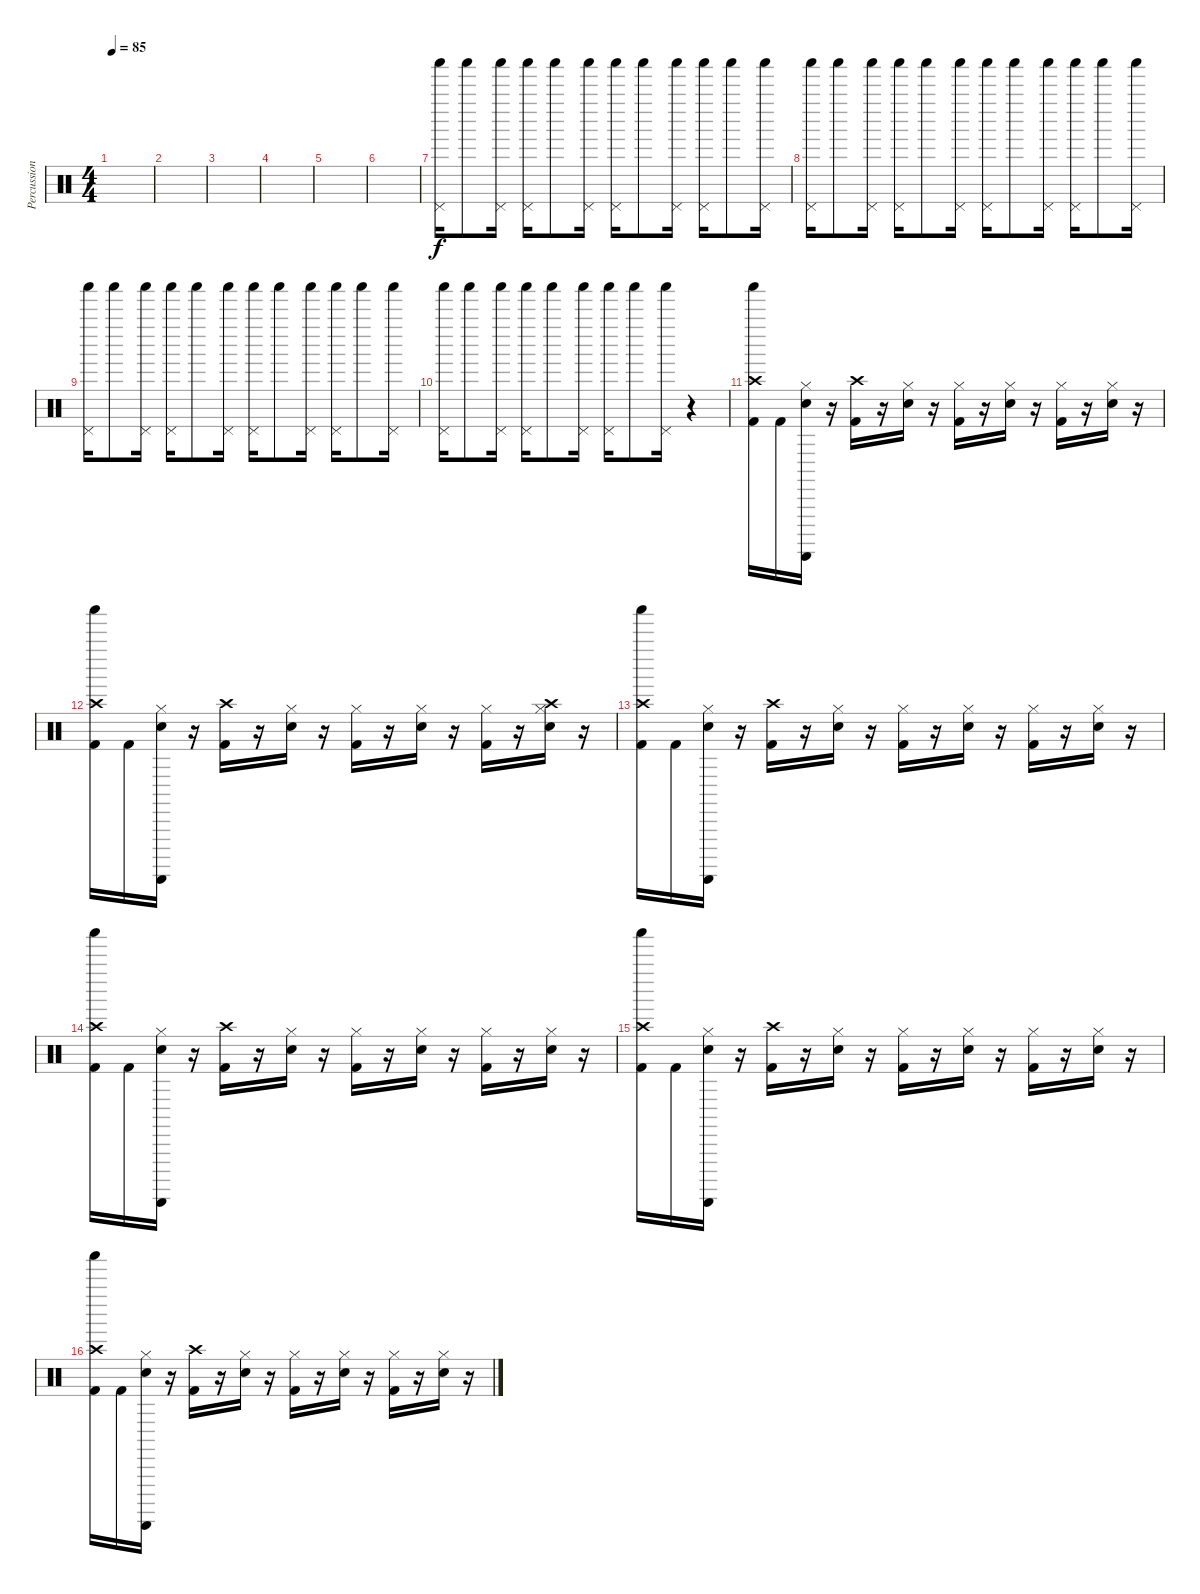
\track ("Percussioni" "Percussion") {instrument percussion}
\staff {score}
\articulation defaults
\ts (4 4)
\tempo 85
\clef neutral
\ks c
|
|
|
|
|
|
("Shaker (hit)" "Pedal Hi-Hat (hit)").16 "Shaker (hit)".8 ("Shaker (hit)" "Pedal Hi-Hat (hit)").16 ("Shaker (hit)" "Pedal Hi-Hat (hit)").16 "Shaker (hit)".8 ("Shaker (hit)" "Pedal Hi-Hat (hit)").16 ("Shaker (hit)" "Pedal Hi-Hat (hit)").16 "Shaker (hit)".8 ("Shaker (hit)" "Pedal Hi-Hat (hit)").16 ("Shaker (hit)" "Pedal Hi-Hat (hit)").16 "Shaker (hit)".8 ("Shaker (hit)" "Pedal Hi-Hat (hit)").16 |
("Shaker (hit)" "Pedal Hi-Hat (hit)").16 "Shaker (hit)".8 ("Shaker (hit)" "Pedal Hi-Hat (hit)").16 ("Shaker (hit)" "Pedal Hi-Hat (hit)").16 "Shaker (hit)".8 ("Shaker (hit)" "Pedal Hi-Hat (hit)").16 ("Shaker (hit)" "Pedal Hi-Hat (hit)").16 "Shaker (hit)".8 ("Shaker (hit)" "Pedal Hi-Hat (hit)").16 ("Shaker (hit)" "Pedal Hi-Hat (hit)").16 "Shaker (hit)".8 ("Shaker (hit)" "Pedal Hi-Hat (hit)").16 |
("Shaker (hit)" "Pedal Hi-Hat (hit)").16 "Shaker (hit)".8 ("Shaker (hit)" "Pedal Hi-Hat (hit)").16 ("Shaker (hit)" "Pedal Hi-Hat (hit)").16 "Shaker (hit)".8 ("Shaker (hit)" "Pedal Hi-Hat (hit)").16 ("Shaker (hit)" "Pedal Hi-Hat (hit)").16 "Shaker (hit)".8 ("Shaker (hit)" "Pedal Hi-Hat (hit)").16 ("Shaker (hit)" "Pedal Hi-Hat (hit)").16 "Shaker (hit)".8 ("Shaker (hit)" "Pedal Hi-Hat (hit)").16 |
("Shaker (hit)" "Pedal Hi-Hat (hit)").16 "Shaker (hit)".8 ("Shaker (hit)" "Pedal Hi-Hat (hit)").16 ("Shaker (hit)" "Pedal Hi-Hat (hit)").16 "Shaker (hit)".8 ("Shaker (hit)" "Pedal Hi-Hat (hit)").16 ("Shaker (hit)" "Pedal Hi-Hat (hit)").16 "Shaker (hit)".8 ("Shaker (hit)" "Pedal Hi-Hat (hit)").16 r.4 |
("Shaker (hit)" "Crash high (hit)" "Kick (hit) 2").16 "Kick (hit) 2".16 ("Hi-Hat (closed)" "Guiro (scrap-return)" "Electric Snare (hit)").16 r.16 ("Crash high (hit)" "Kick (hit) 2").16 r.16 ("Hi-Hat (closed)" "Electric Snare (hit)").16 r.16 ("Hi-Hat (closed)" "Kick (hit) 2").16 r.16 ("Hi-Hat (closed)" "Electric Snare (hit)").16 r.16 ("Hi-Hat (closed)" "Kick (hit) 2").16 r.16 ("Hi-Hat (closed)" "Electric Snare (hit)").16 r.16 |
("Shaker (hit)" "Crash high (hit)" "Kick (hit) 2").16 "Kick (hit) 2".16 ("Hi-Hat (closed)" "Guiro (scrap-return)" "Electric Snare (hit)").16 r.16 ("Crash high (hit)" "Kick (hit) 2").16 r.16 ("Hi-Hat (closed)" "Electric Snare (hit)").16 r.16 ("Hi-Hat (closed)" "Kick (hit) 2").16 r.16 ("Hi-Hat (closed)" "Electric Snare (hit)").16 r.16 ("Hi-Hat (closed)" "Kick (hit) 2").16 r.16 ("Hi-Hat (closed)" "Electric Snare (hit)" "Crash high (hit)").16 r.16 |
("Shaker (hit)" "Crash high (hit)" "Kick (hit) 2").16 "Kick (hit) 2".16 ("Hi-Hat (closed)" "Guiro (scrap-return)" "Electric Snare (hit)").16 r.16 ("Crash high (hit)" "Kick (hit) 2").16 r.16 ("Hi-Hat (closed)" "Electric Snare (hit)").16 r.16 ("Hi-Hat (closed)" "Kick (hit) 2").16 r.16 ("Hi-Hat (closed)" "Electric Snare (hit)").16 r.16 ("Hi-Hat (closed)" "Kick (hit) 2").16 r.16 ("Hi-Hat (closed)" "Electric Snare (hit)").16 r.16 |
("Shaker (hit)" "Crash high (hit)" "Kick (hit) 2").16 "Kick (hit) 2".16 ("Hi-Hat (closed)" "Guiro (scrap-return)" "Electric Snare (hit)").16 r.16 ("Crash high (hit)" "Kick (hit) 2").16 r.16 ("Hi-Hat (closed)" "Electric Snare (hit)").16 r.16 ("Hi-Hat (closed)" "Kick (hit) 2").16 r.16 ("Hi-Hat (closed)" "Electric Snare (hit)").16 r.16 ("Hi-Hat (closed)" "Kick (hit) 2").16 r.16 ("Hi-Hat (closed)" "Electric Snare (hit)").16 r.16 |
("Shaker (hit)" "Crash high (hit)" "Kick (hit) 2").16 "Kick (hit) 2".16 ("Hi-Hat (closed)" "Guiro (scrap-return)" "Electric Snare (hit)").16 r.16 ("Crash high (hit)" "Kick (hit) 2").16 r.16 ("Hi-Hat (closed)" "Electric Snare (hit)").16 r.16 ("Hi-Hat (closed)" "Kick (hit) 2").16 r.16 ("Hi-Hat (closed)" "Electric Snare (hit)").16 r.16 ("Hi-Hat (closed)" "Kick (hit) 2").16 r.16 ("Hi-Hat (closed)" "Electric Snare (hit)").16 r.16 |
("Shaker (hit)" "Crash high (hit)" "Kick (hit) 2").16 "Kick (hit) 2".16 ("Hi-Hat (closed)" "Guiro (scrap-return)" "Electric Snare (hit)").16 r.16 ("Crash high (hit)" "Kick (hit) 2").16 r.16 ("Hi-Hat (closed)" "Electric Snare (hit)").16 r.16 ("Hi-Hat (closed)" "Kick (hit) 2").16 r.16 ("Hi-Hat (closed)" "Electric Snare (hit)").16 r.16 ("Hi-Hat (closed)" "Kick (hit) 2").16 r.16 ("Hi-Hat (closed)" "Electric Snare (hit)").16 r.16
